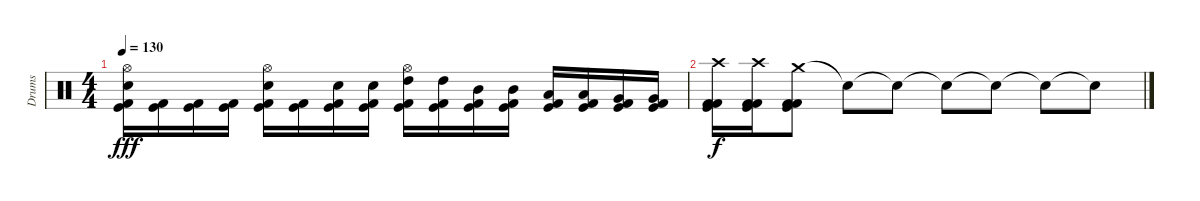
\track ("Drums" "Drums") {instrument percussion}
\staff {score}
\articulation defaults
\ts (4 4)
\tempo 130
\clef neutral
\ks c
("Hi-Hat (open)" "Electric Snare (hit)" "Kick (hit)" "Kick (hit) 2").16{dy fff} ("Kick (hit)" "Kick (hit) 2").16 ("Kick (hit)" "Kick (hit) 2").16 ("Kick (hit)" "Kick (hit) 2").16 ("Hi-Hat (open)" "Electric Snare (hit)" "Kick (hit)" "Kick (hit) 2").16 ("Kick (hit)" "Kick (hit) 2").16 ("Electric Snare (hit)" "Kick (hit)" "Kick (hit) 2").16 ("Electric Snare (hit)" "Kick (hit)" "Kick (hit) 2").16 ("Hi-Hat (open)" "High Tom (hit)" "Kick (hit)" "Kick (hit) 2").16 ("High Tom (hit)" "Kick (hit)" "Kick (hit) 2").16 ("Mid Tom (hit)" "Kick (hit)" "Kick (hit) 2").16 ("Mid Tom (hit)" "Kick (hit)" "Kick (hit) 2").16 ("Low Tom (hit)" "Kick (hit)" "Kick (hit) 2").16 ("Low Tom (hit)" "Kick (hit)" "Kick (hit) 2").16 ("Very Low Tom (hit)" "Kick (hit)" "Kick (hit) 2").16 ("Very Low Tom (hit)" "Kick (hit)" "Kick (hit) 2").16 |
("Crash high (hit)" "Kick (hit)" "Kick (hit) 2" "Kick (hit) 2").16{dy f} ("Crash high (hit)" "Kick (hit)" "Kick (hit) 2" "Kick (hit) 2").16 ("Crash medium (hit)" "Kick (hit)" "Kick (hit) 2" "Kick (hit) 2").8 "Snare (hit)"{t}.8 "Snare (hit)"{t}.8 "Snare (hit)"{t}.8 "Snare (hit)"{t}.8 "Snare (hit)"{t}.8 "Snare (hit)"{t}.8
